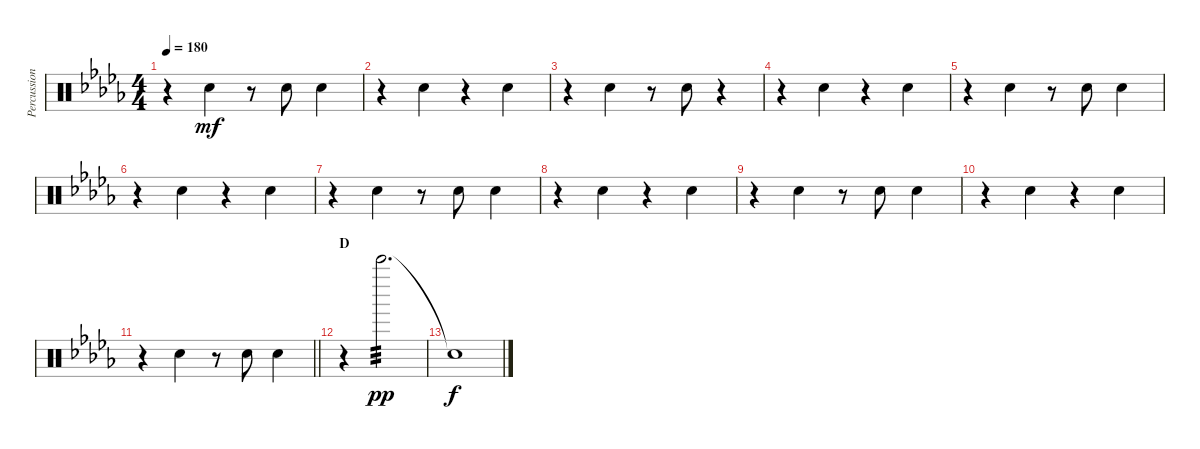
\track ("Percussion I (Tainaka Ritsu)" "Percussion") {instrument percussion}
\staff {score}
\articulation defaults
\ts (4 4)
\tempo 180
\clef neutral
\ks db
r.4{dy mf} "Hand Clap (hit)".4 r.8 "Hand Clap (hit)".8 "Hand Clap (hit)".4 |
r.4 "Hand Clap (hit)".4 r.4 "Hand Clap (hit)".4 |
r.4 "Hand Clap (hit)".4 r.8 "Hand Clap (hit)".8 r.4 |
r.4 "Hand Clap (hit)".4 r.4 "Hand Clap (hit)".4 |
r.4 "Hand Clap (hit)".4 r.8 "Hand Clap (hit)".8 "Hand Clap (hit)".4 |
r.4 "Hand Clap (hit)".4 r.4 "Hand Clap (hit)".4 |
r.4 "Hand Clap (hit)".4 r.8 "Hand Clap (hit)".8 "Hand Clap (hit)".4 |
r.4 "Hand Clap (hit)".4 r.4 "Hand Clap (hit)".4 |
r.4 "Hand Clap (hit)".4 r.8 "Hand Clap (hit)".8 "Hand Clap (hit)".4 |
r.4 "Hand Clap (hit)".4 r.4 "Hand Clap (hit)".4 |
\barLineRight lightlight
r.4 "Hand Clap (hit)".4 r.8 "Hand Clap (hit)".8 "Hand Clap (hit)".4 |
\section ("" "D")
r.4 "Bell Tree (hit)".2{d tp 3 dy pp} |
"Snare (hit)"{t}.1{dy f}
